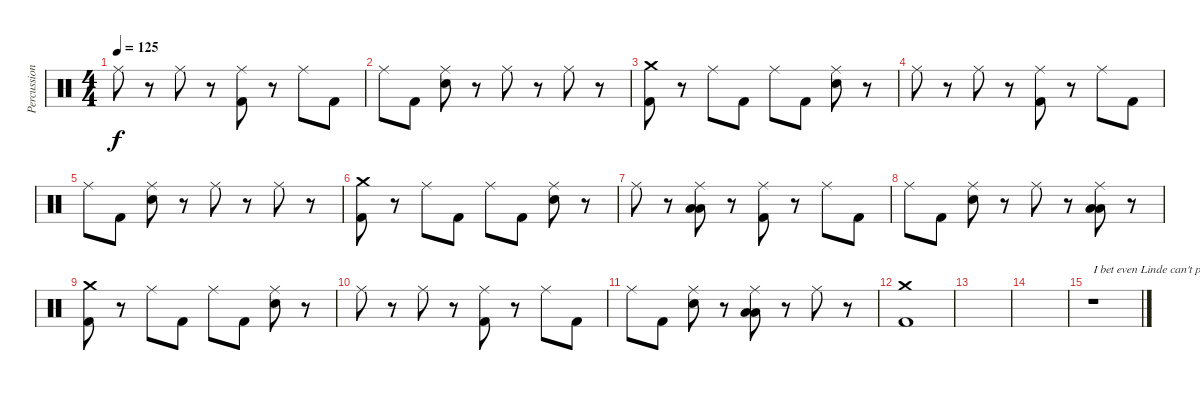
\track ("Percussion" "Percussion") {instrument percussion}
\staff {score}
\articulation defaults
\ts (4 4)
\tempo 125
\clef neutral
\ks c "Ride (middle)".8{dy f}
r.8 "Ride (middle)".8 r.8 ("Ride (middle)" "Kick (hit) 2").8 r.8 "Ride (middle)".8 "Kick (hit) 2".8 |
"Ride (middle)".8 "Kick (hit) 2".8 ("Ride (middle)" "Electric Snare (hit)").8 r.8 "Ride (middle)".8 r.8 "Ride (middle)".8 r.8 |
("Crash medium (hit)" "Kick (hit) 2").8 r.8 "Ride (middle)".8 "Kick (hit) 2".8 "Ride (middle)".8 "Kick (hit) 2".8 ("Ride (middle)" "Electric Snare (hit)").8 r.8 |
"Ride (middle)".8 r.8 "Ride (middle)".8 r.8 ("Ride (middle)" "Kick (hit) 2").8 r.8 "Ride (middle)".8 "Kick (hit) 2".8 |
"Ride (middle)".8 "Kick (hit) 2".8 ("Ride (middle)" "Electric Snare (hit)").8 r.8 "Ride (middle)".8 r.8 "Ride (middle)".8 r.8 |
("Crash medium (hit)" "Kick (hit) 2").8 r.8 "Ride (middle)".8 "Kick (hit) 2".8 "Ride (middle)".8 "Kick (hit) 2".8 ("Ride (middle)" "Electric Snare (hit)").8 r.8 |
"Ride (middle)".8 r.8 ("Ride (middle)" "Low Tom (hit)" "Low Tom (hit)").8 r.8 ("Ride (middle)" "Kick (hit) 2").8 r.8 "Ride (middle)".8 "Kick (hit) 2".8 |
"Ride (middle)".8 "Kick (hit) 2".8 ("Ride (middle)" "Electric Snare (hit)").8 r.8 "Ride (middle)".8 r.8 ("Ride (middle)" "Low Tom (hit)" "Low Tom (hit)").8 r.8 |
("Crash medium (hit)" "Kick (hit) 2").8 r.8 "Ride (middle)".8 "Kick (hit) 2".8 "Ride (middle)".8 "Kick (hit) 2".8 ("Ride (middle)" "Electric Snare (hit)").8 r.8 |
"Ride (middle)".8 r.8 "Ride (middle)".8 r.8 ("Ride (middle)" "Kick (hit) 2").8 r.8 "Ride (middle)".8 "Kick (hit) 2".8 |
"Ride (middle)".8 "Kick (hit) 2".8 ("Ride (middle)" "Electric Snare (hit)").8 r.8 ("Ride (middle)" "Low Tom (hit)" "Low Tom (hit)").8 r.8 "Ride (middle)".8 r.8 |
("Crash medium (hit)" "Kick (hit) 2").1 |
|
|
r.1{txt "I bet even Linde can't play it again..."}
